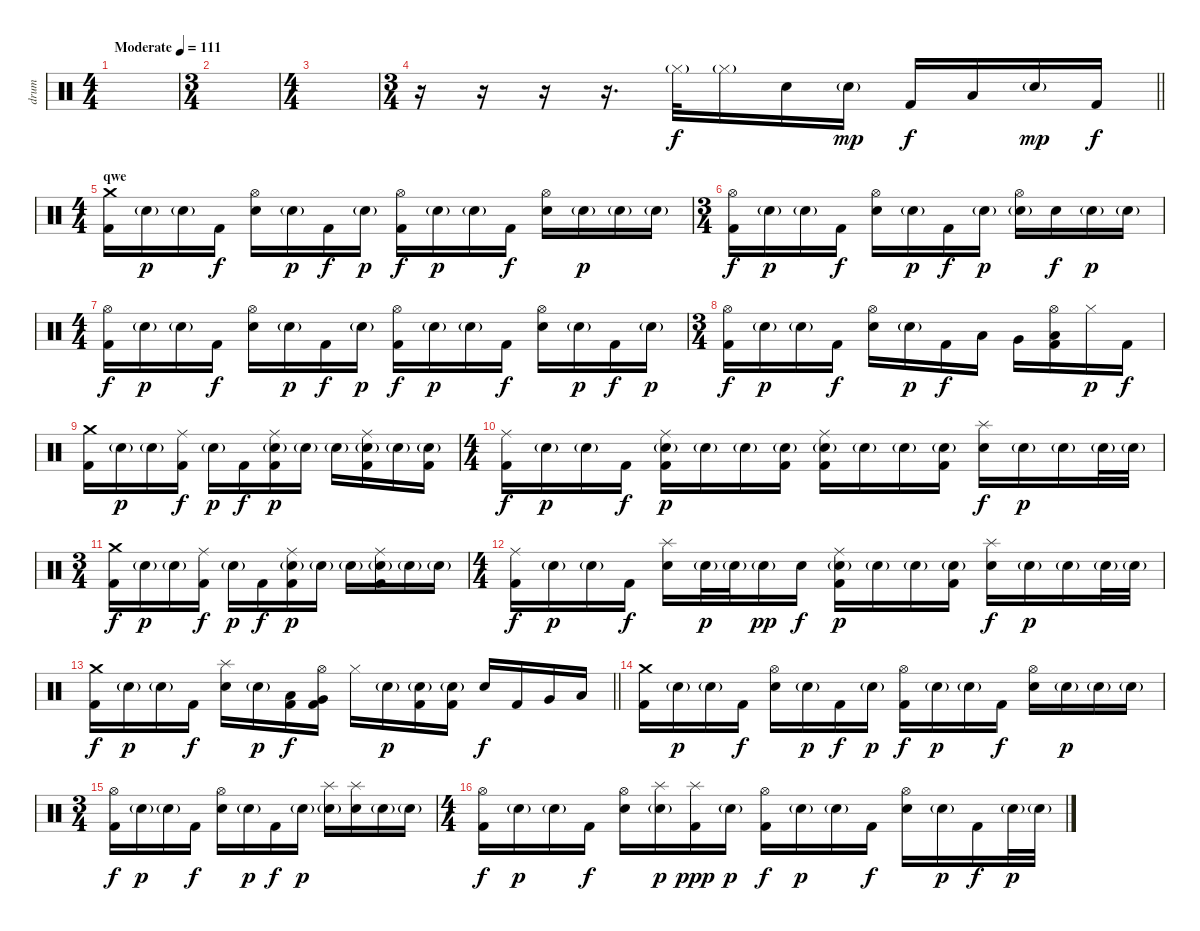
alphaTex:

\track ("drum" "drum") {instrument percussion}
\staff {score}
\articulation defaults
\ts (4 4)
\tempo (111 "Moderate")
\clef neutral
\ks c
|
\ts (3 4)
|
\ts (4 4)
|
\ts (3 4)
\barLineRight lightlight
r.16 r.16 r.16 r.16{d} "Hi-Hat (closed)"{g}.32 "Hi-Hat (closed)"{g}.16 "Electric Snare (hit)".16{dy f} "Electric Snare (hit)"{g}.16{dy mp} "Kick (hit) 2".16{dy f} "Low Tom (hit)".16 "Electric Snare (hit)"{g}.16{dy mp} "Kick (hit) 2".16{dy f} |
\ts (4 4)
\section ("" "qwe")
("Crash medium (hit)" "Kick (hit) 2").16 "Electric Snare (hit)"{g}.16{dy p} "Electric Snare (hit)"{g}.16 "Kick (hit) 2".16{dy f} ("Hi-Hat (open)" "Electric Snare (hit)").16 "Electric Snare (hit)"{g}.16{dy p} "Kick (hit) 2".16{dy f} "Electric Snare (hit)"{g}.16{dy p} ("Hi-Hat (open)" "Kick (hit) 2").16{dy f} "Electric Snare (hit)"{g}.16{dy p} "Electric Snare (hit)"{g}.16 "Kick (hit) 2".16{dy f} ("Hi-Hat (open)" "Electric Snare (hit)").16 "Electric Snare (hit)"{g}.16{dy p} "Electric Snare (hit)"{g}.16 "Electric Snare (hit)"{g}.16 |
\ts (3 4)
("Hi-Hat (open)" "Kick (hit) 2").16{dy f} "Electric Snare (hit)"{g}.16{dy p} "Electric Snare (hit)"{g}.16 "Kick (hit) 2".16{dy f} ("Hi-Hat (open)" "Electric Snare (hit)").16 "Electric Snare (hit)"{g}.16{dy p} "Kick (hit) 2".16{dy f} "Electric Snare (hit)"{g}.16{dy p} ("Hi-Hat (open)" "Electric Snare (hit)"{g}).16 "Electric Snare (hit)".16{dy f} "Electric Snare (hit)"{g}.16{dy p} "Electric Snare (hit)"{g}.16 |
\ts (4 4)
("Hi-Hat (open)" "Kick (hit) 2").16{dy f} "Electric Snare (hit)"{g}.16{dy p} "Electric Snare (hit)"{g}.16 "Kick (hit) 2".16{dy f} ("Hi-Hat (open)" "Electric Snare (hit)").16 "Electric Snare (hit)"{g}.16{dy p} "Kick (hit) 2".16{dy f} "Electric Snare (hit)"{g}.16{dy p} ("Hi-Hat (open)" "Kick (hit) 2").16{dy f} "Electric Snare (hit)"{g}.16{dy p} "Electric Snare (hit)"{g}.16 "Kick (hit) 2".16{dy f} ("Hi-Hat (open)" "Electric Snare (hit)").16 "Electric Snare (hit)"{g}.16{dy p} "Kick (hit) 2".16{dy f} "Electric Snare (hit)"{g}.16{dy p} |
\ts (3 4)
("Hi-Hat (open)" "Kick (hit) 2").16{dy f} "Electric Snare (hit)"{g}.16{dy p} "Electric Snare (hit)"{g}.16 "Kick (hit) 2".16{dy f} ("Hi-Hat (open)" "Electric Snare (hit)").16 "Electric Snare (hit)"{g}.16{dy p} "Kick (hit) 2".16{dy f} "Low Tom (hit)".16 "Very Low Tom (hit)".16 ("Hi-Hat (open)" "Low Floor Tom (hit)" "Kick (hit) 2").16 "Hi-Hat (closed)".16{dy p} "Kick (hit) 2".16{dy f} |
("Crash medium (hit)" "Kick (hit) 2").16 "Electric Snare (hit)"{g}.16{dy p} "Electric Snare (hit)"{g}.16 ("Ride (middle)" "Kick (hit) 2").16{dy f} "Electric Snare (hit)"{g}.16{dy p} "Kick (hit) 2".16{dy f} ("Ride (middle)" "Electric Snare (hit)"{g} "Kick (hit) 2").16{dy p} "Electric Snare (hit)"{g}.16 "Electric Snare (hit)"{g}.16 ("Ride (middle)" "Electric Snare (hit)"{g} "Kick (hit) 2").16 "Electric Snare (hit)"{g}.16 ("Electric Snare (hit)"{g} "Kick (hit) 2").16 |
\ts (4 4)
("Ride (middle)" "Kick (hit) 2").16{dy f} "Electric Snare (hit)"{g}.16{dy p} "Electric Snare (hit)"{g}.16 "Kick (hit) 2".16{dy f} ("Ride (middle)" "Electric Snare (hit)"{g} "Kick (hit) 2").16{dy p} "Electric Snare (hit)"{g}.16 "Electric Snare (hit)"{g}.16 ("Electric Snare (hit)"{g} "Kick (hit) 2").16 ("Ride (middle)" "Electric Snare (hit)"{g} "Kick (hit) 2").16 "Electric Snare (hit)"{g}.16 "Electric Snare (hit)"{g}.16 ("Electric Snare (hit)"{g} "Kick (hit) 2").16 ("Splash (hit)" "Electric Snare (hit)").16{dy f} "Electric Snare (hit)"{g}.16{dy p} "Electric Snare (hit)"{g}.16 "Electric Snare (hit)"{g}.32 "Electric Snare (hit)"{g}.32 |
\ts (3 4)
("Crash medium (hit)" "Kick (hit) 2").16{dy f} "Electric Snare (hit)"{g}.16{dy p} "Electric Snare (hit)"{g}.16 ("Ride (middle)" "Kick (hit) 2").16{dy f} "Electric Snare (hit)"{g}.16{dy p} "Kick (hit) 2".16{dy f} ("Ride (middle)" "Electric Snare (hit)"{g} "Kick (hit) 2").16{dy p} "Electric Snare (hit)"{g}.16 "Electric Snare (hit)"{g}.16 ("Ride (middle)" "Electric Snare (hit)"{g} "Kick (hit) 2").16 "Electric Snare (hit)"{g}.16 "Electric Snare (hit)"{g}.16 |
\ts (4 4)
("Ride (middle)" "Kick (hit) 2").16{dy f} "Electric Snare (hit)"{g}.16{dy p} "Electric Snare (hit)"{g}.16 "Kick (hit) 2".16{dy f} ("Splash (hit)" "Electric Snare (hit)").16 "Electric Snare (hit)"{g}.32{dy p} "Electric Snare (hit)"{g}.32 "Electric Snare (hit)"{g}.16{dy pp} "Electric Snare (hit)".16{dy f} ("Ride (middle)" "Electric Snare (hit)"{g} "Kick (hit) 2").16{dy p} "Electric Snare (hit)"{g}.16 "Electric Snare (hit)"{g}.16 ("Electric Snare (hit)"{g} "Kick (hit) 2").16 ("Splash (hit)" "Electric Snare (hit)").16{dy f} "Electric Snare (hit)"{g}.16{dy p} "Electric Snare (hit)"{g}.16 "Electric Snare (hit)"{g}.32 "Electric Snare (hit)"{g}.32 |
\barLineRight lightlight
("Crash medium (hit)" "Kick (hit) 2").16{dy f} "Electric Snare (hit)"{g}.16{dy p} "Electric Snare (hit)"{g}.16 "Kick (hit) 2".16{dy f} ("Splash (hit)" "Electric Snare (hit)").16 "Electric Snare (hit)"{g}.16{dy p} ("Low Tom (hit)" "Kick (hit) 2").16{dy f} ("Hi-Hat (open)" "Very Low Tom (hit)" "Kick (hit) 2").16 "Hi-Hat (closed)".16 "Electric Snare (hit)"{g}.16{dy p} ("Electric Snare (hit)"{g} "Kick (hit) 2").16 ("Electric Snare (hit)"{g} "Kick (hit) 2").16 "Electric Snare (hit)".16{dy f} "Kick (hit) 2".16 "Very Low Tom (hit)".16 "Low Tom (hit)".16 |
\section ("" "")
("Crash medium (hit)" "Kick (hit) 2").16 "Electric Snare (hit)"{g}.16{dy p} "Electric Snare (hit)"{g}.16 "Kick (hit) 2".16{dy f} ("Hi-Hat (open)" "Electric Snare (hit)").16 "Electric Snare (hit)"{g}.16{dy p} "Kick (hit) 2".16{dy f} "Electric Snare (hit)"{g}.16{dy p} ("Hi-Hat (open)" "Kick (hit) 2").16{dy f} "Electric Snare (hit)"{g}.16{dy p} "Electric Snare (hit)"{g}.16 "Kick (hit) 2".16{dy f} ("Hi-Hat (open)" "Electric Snare (hit)").16 "Electric Snare (hit)"{g}.16{dy p} "Electric Snare (hit)"{g}.16 "Electric Snare (hit)"{g}.16 |
\ts (3 4)
("Hi-Hat (open)" "Kick (hit) 2").16{dy f} "Electric Snare (hit)"{g}.16{dy p} "Electric Snare (hit)"{g}.16 "Kick (hit) 2".16{dy f} ("Hi-Hat (open)" "Electric Snare (hit)").16 "Electric Snare (hit)"{g}.16{dy p} "Kick (hit) 2".16{dy f} "Electric Snare (hit)"{g}.16{dy p} ("Splash (hit)" "Electric Snare (hit)"{g}).16 ("Splash (hit)" "Electric Snare (hit)").16 "Electric Snare (hit)"{g}.16 "Electric Snare (hit)"{g}.16 |
\ts (4 4)
("Hi-Hat (open)" "Kick (hit) 2").16{dy f} "Electric Snare (hit)"{g}.16{dy p} "Electric Snare (hit)"{g}.16 "Kick (hit) 2".16{dy f} ("Hi-Hat (open)" "Electric Snare (hit)").16 ("Splash (hit)" "Electric Snare (hit)"{g}).16{dy p} ("Splash (hit)" "Kick (hit) 2").16{dy ppp} "Electric Snare (hit)"{g}.16{dy p} ("Hi-Hat (open)" "Kick (hit) 2").16{dy f} "Electric Snare (hit)"{g}.16{dy p} "Electric Snare (hit)"{g}.16 "Kick (hit) 2".16{dy f} ("Hi-Hat (open)" "Electric Snare (hit)").16 "Electric Snare (hit)"{g}.16{dy p} "Kick (hit) 2".16{dy f} "Electric Snare (hit)"{g}.32{dy p} "Electric Snare (hit)"{g}.32
